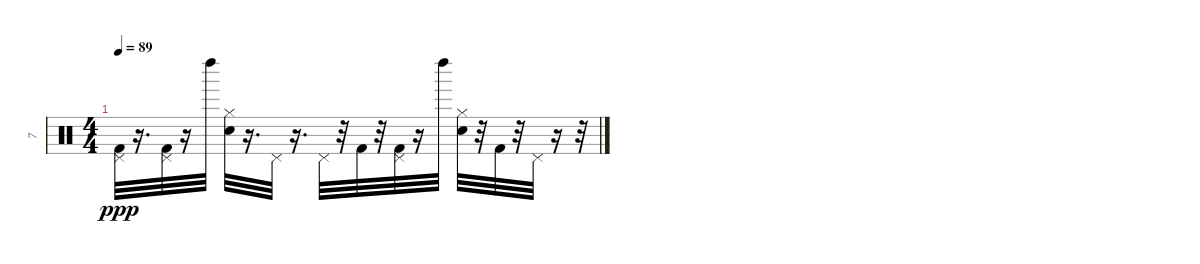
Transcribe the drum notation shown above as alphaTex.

\track ("7" "7") {instrument percussion}
\staff {score}
\articulation defaults
\ts (4 4)
\tempo 89
\clef neutral
\ks c
("Kick (hit) 2" "Pedal Hi-Hat (hit)").32{dy ppp} r.16{d} ("Kick (hit) 2" "Pedal Hi-Hat (hit)").32 r.16 "Left Maraca (hit)".32 ("Hand Clap (hit)" "Hi-Hat (closed)").32 r.16{d} "Pedal Hi-Hat (hit)".32 r.16{d} "Pedal Hi-Hat (hit)".32 r.32 "Kick (hit) 2".32 r.32 ("Kick (hit) 2" "Pedal Hi-Hat (hit)").32 r.16 "Left Maraca (hit)".32 ("Hand Clap (hit)" "Hi-Hat (closed)").32 r.32 "Kick (hit) 2".32 r.32 "Pedal Hi-Hat (hit)".32 r.16 r.32
